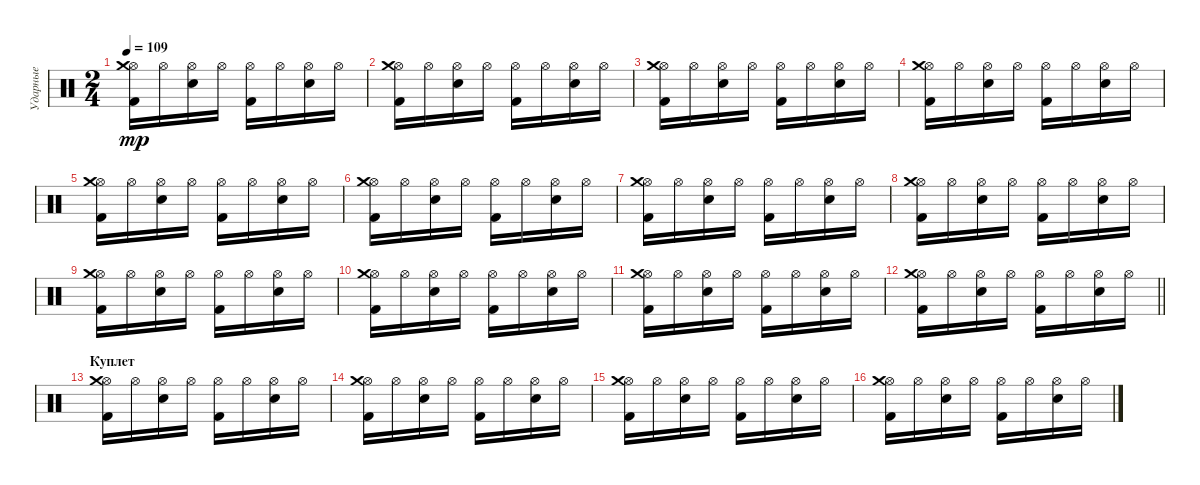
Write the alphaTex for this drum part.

\track ("Ударные" "Ударные") {instrument percussion}
\staff {score}
\articulation defaults
\ts (2 4)
\tempo 109
\clef neutral
\ks c
("Kick (hit) 2" "Hi-Hat (open)" "Crash medium (hit)").16{dy mp} "Hi-Hat (open)".16 ("Electric Snare (hit)" "Hi-Hat (open)").16 "Hi-Hat (open)".16 ("Kick (hit) 2" "Hi-Hat (open)").16 "Hi-Hat (open)".16 ("Electric Snare (hit)" "Hi-Hat (open)").16 "Hi-Hat (open)".16 |
("Kick (hit) 2" "Hi-Hat (open)" "Crash medium (hit)").16 "Hi-Hat (open)".16 ("Electric Snare (hit)" "Hi-Hat (open)").16 "Hi-Hat (open)".16 ("Kick (hit) 2" "Hi-Hat (open)").16 "Hi-Hat (open)".16 ("Electric Snare (hit)" "Hi-Hat (open)").16 "Hi-Hat (open)".16 |
("Kick (hit) 2" "Hi-Hat (open)" "Crash medium (hit)").16 "Hi-Hat (open)".16 ("Electric Snare (hit)" "Hi-Hat (open)").16 "Hi-Hat (open)".16 ("Kick (hit) 2" "Hi-Hat (open)").16 "Hi-Hat (open)".16 ("Electric Snare (hit)" "Hi-Hat (open)").16 "Hi-Hat (open)".16 |
("Kick (hit) 2" "Hi-Hat (open)" "Crash medium (hit)").16 "Hi-Hat (open)".16 ("Electric Snare (hit)" "Hi-Hat (open)").16 "Hi-Hat (open)".16 ("Kick (hit) 2" "Hi-Hat (open)").16 "Hi-Hat (open)".16 ("Electric Snare (hit)" "Hi-Hat (open)").16 "Hi-Hat (open)".16 |
("Kick (hit) 2" "Hi-Hat (open)" "Crash medium (hit)").16 "Hi-Hat (open)".16 ("Electric Snare (hit)" "Hi-Hat (open)").16 "Hi-Hat (open)".16 ("Kick (hit) 2" "Hi-Hat (open)").16 "Hi-Hat (open)".16 ("Electric Snare (hit)" "Hi-Hat (open)").16 "Hi-Hat (open)".16 |
("Kick (hit) 2" "Hi-Hat (open)" "Crash medium (hit)").16 "Hi-Hat (open)".16 ("Electric Snare (hit)" "Hi-Hat (open)").16 "Hi-Hat (open)".16 ("Kick (hit) 2" "Hi-Hat (open)").16 "Hi-Hat (open)".16 ("Electric Snare (hit)" "Hi-Hat (open)").16 "Hi-Hat (open)".16 |
("Kick (hit) 2" "Hi-Hat (open)" "Crash medium (hit)").16 "Hi-Hat (open)".16 ("Electric Snare (hit)" "Hi-Hat (open)").16 "Hi-Hat (open)".16 ("Kick (hit) 2" "Hi-Hat (open)").16 "Hi-Hat (open)".16 ("Electric Snare (hit)" "Hi-Hat (open)").16 "Hi-Hat (open)".16 |
("Kick (hit) 2" "Hi-Hat (open)" "Crash medium (hit)").16 "Hi-Hat (open)".16 ("Electric Snare (hit)" "Hi-Hat (open)").16 "Hi-Hat (open)".16 ("Kick (hit) 2" "Hi-Hat (open)").16 "Hi-Hat (open)".16 ("Electric Snare (hit)" "Hi-Hat (open)").16 "Hi-Hat (open)".16 |
("Kick (hit) 2" "Hi-Hat (open)" "Crash medium (hit)").16 "Hi-Hat (open)".16 ("Electric Snare (hit)" "Hi-Hat (open)").16 "Hi-Hat (open)".16 ("Kick (hit) 2" "Hi-Hat (open)").16 "Hi-Hat (open)".16 ("Electric Snare (hit)" "Hi-Hat (open)").16 "Hi-Hat (open)".16 |
("Kick (hit) 2" "Hi-Hat (open)" "Crash medium (hit)").16 "Hi-Hat (open)".16 ("Electric Snare (hit)" "Hi-Hat (open)").16 "Hi-Hat (open)".16 ("Kick (hit) 2" "Hi-Hat (open)").16 "Hi-Hat (open)".16 ("Electric Snare (hit)" "Hi-Hat (open)").16 "Hi-Hat (open)".16 |
("Kick (hit) 2" "Hi-Hat (open)" "Crash medium (hit)").16 "Hi-Hat (open)".16 ("Electric Snare (hit)" "Hi-Hat (open)").16 "Hi-Hat (open)".16 ("Kick (hit) 2" "Hi-Hat (open)").16 "Hi-Hat (open)".16 ("Electric Snare (hit)" "Hi-Hat (open)").16 "Hi-Hat (open)".16 |
\barLineRight lightlight
("Kick (hit) 2" "Hi-Hat (open)" "Crash medium (hit)").16 "Hi-Hat (open)".16 ("Electric Snare (hit)" "Hi-Hat (open)").16 "Hi-Hat (open)".16 ("Kick (hit) 2" "Hi-Hat (open)").16 "Hi-Hat (open)".16 ("Electric Snare (hit)" "Hi-Hat (open)").16 "Hi-Hat (open)".16 |
\section ("" "Куплет")
("Kick (hit) 2" "Hi-Hat (open)" "Crash medium (hit)").16 "Hi-Hat (open)".16 ("Electric Snare (hit)" "Hi-Hat (open)").16 "Hi-Hat (open)".16 ("Kick (hit) 2" "Hi-Hat (open)").16 "Hi-Hat (open)".16 ("Electric Snare (hit)" "Hi-Hat (open)").16 "Hi-Hat (open)".16 |
("Kick (hit) 2" "Hi-Hat (open)" "Crash medium (hit)").16 "Hi-Hat (open)".16 ("Electric Snare (hit)" "Hi-Hat (open)").16 "Hi-Hat (open)".16 ("Kick (hit) 2" "Hi-Hat (open)").16 "Hi-Hat (open)".16 ("Electric Snare (hit)" "Hi-Hat (open)").16 "Hi-Hat (open)".16 |
("Kick (hit) 2" "Hi-Hat (open)" "Crash medium (hit)").16 "Hi-Hat (open)".16 ("Electric Snare (hit)" "Hi-Hat (open)").16 "Hi-Hat (open)".16 ("Kick (hit) 2" "Hi-Hat (open)").16 "Hi-Hat (open)".16 ("Electric Snare (hit)" "Hi-Hat (open)").16 "Hi-Hat (open)".16 |
("Kick (hit) 2" "Hi-Hat (open)" "Crash medium (hit)").16 "Hi-Hat (open)".16 ("Electric Snare (hit)" "Hi-Hat (open)").16 "Hi-Hat (open)".16 ("Kick (hit) 2" "Hi-Hat (open)").16 "Hi-Hat (open)".16 ("Electric Snare (hit)" "Hi-Hat (open)").16 "Hi-Hat (open)".16
